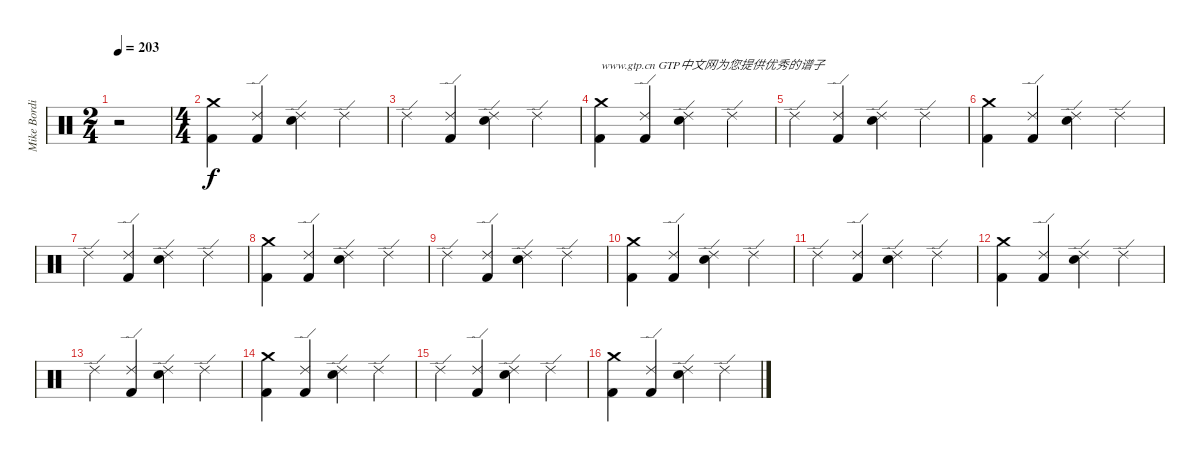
\track ("Mike Bordin" "Mike Bordi") {instrument percussion}
\staff {score}
\articulation defaults
\ts (2 4)
\tempo 203
\clef neutral
\ks c
r.2{dy f} |
\ts (4 4)
("Crash medium (hit)" "Kick (hit) 2").4 ("Ride (edge) 2" "Kick (hit) 2").4 ("Ride (edge) 2" "Snare (hit) 2").4 "Ride (edge) 2".4 |
"Ride (edge) 2".4 ("Ride (edge) 2" "Kick (hit) 2").4 ("Ride (edge) 2" "Snare (hit) 2").4 "Ride (edge) 2".4 |
("Crash medium (hit)" "Kick (hit) 2").4{txt "www.gtp.cn GTP中文网为您提供优秀的谱子"} ("Ride (edge) 2" "Kick (hit) 2").4 ("Ride (edge) 2" "Snare (hit) 2").4 "Ride (edge) 2".4 |
"Ride (edge) 2".4 ("Ride (edge) 2" "Kick (hit) 2").4 ("Ride (edge) 2" "Snare (hit) 2").4 "Ride (edge) 2".4 |
("Crash medium (hit)" "Kick (hit) 2").4 ("Ride (edge) 2" "Kick (hit) 2").4 ("Ride (edge) 2" "Snare (hit) 2").4 "Ride (edge) 2".4 |
"Ride (edge) 2".4 ("Ride (edge) 2" "Kick (hit) 2").4 ("Ride (edge) 2" "Snare (hit) 2").4 "Ride (edge) 2".4 |
("Crash medium (hit)" "Kick (hit) 2").4 ("Ride (edge) 2" "Kick (hit) 2").4 ("Ride (edge) 2" "Snare (hit) 2").4 "Ride (edge) 2".4 |
"Ride (edge) 2".4 ("Ride (edge) 2" "Kick (hit) 2").4 ("Ride (edge) 2" "Snare (hit) 2").4 "Ride (edge) 2".4 |
("Crash medium (hit)" "Kick (hit) 2").4 ("Ride (edge) 2" "Kick (hit) 2").4 ("Ride (edge) 2" "Snare (hit) 2").4 "Ride (edge) 2".4 |
"Ride (edge) 2".4 ("Ride (edge) 2" "Kick (hit) 2").4 ("Ride (edge) 2" "Snare (hit) 2").4 "Ride (edge) 2".4 |
("Crash medium (hit)" "Kick (hit) 2").4 ("Ride (edge) 2" "Kick (hit) 2").4 ("Ride (edge) 2" "Snare (hit) 2").4 "Ride (edge) 2".4 |
"Ride (edge) 2".4 ("Ride (edge) 2" "Kick (hit) 2").4 ("Ride (edge) 2" "Snare (hit) 2").4 "Ride (edge) 2".4 |
("Crash medium (hit)" "Kick (hit) 2").4 ("Ride (edge) 2" "Kick (hit) 2").4 ("Ride (edge) 2" "Snare (hit) 2").4 "Ride (edge) 2".4 |
"Ride (edge) 2".4 ("Ride (edge) 2" "Kick (hit) 2").4 ("Ride (edge) 2" "Snare (hit) 2").4 "Ride (edge) 2".4 |
("Crash medium (hit)" "Kick (hit) 2").4 ("Ride (edge) 2" "Kick (hit) 2").4 ("Ride (edge) 2" "Snare (hit) 2").4 "Ride (edge) 2".4
